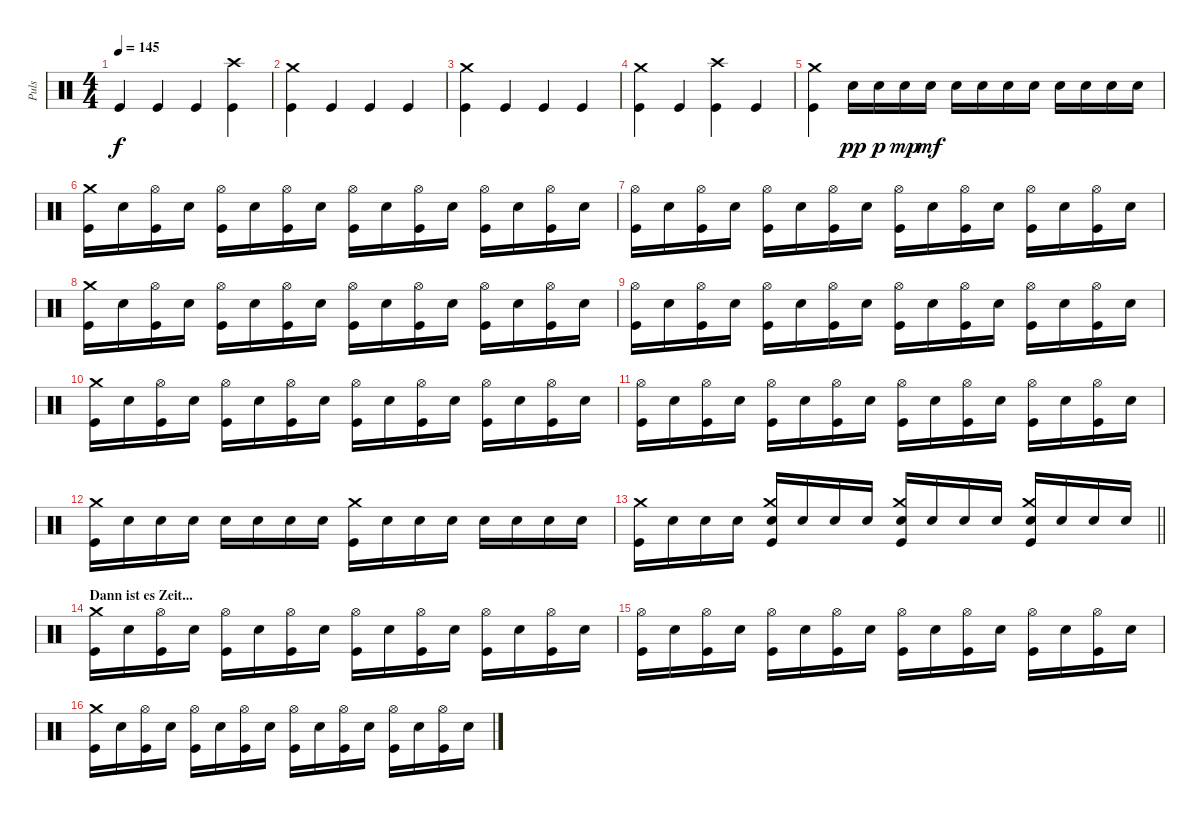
\track ("Puls" "Puls") {instrument percussion}
\staff {score}
\articulation defaults
\ts (4 4)
\tempo 145
\clef neutral
\ks c "Kick (hit)".4{dy f} "Kick (hit)".4 "Kick (hit)".4
("Kick (hit)" "Crash high (hit)").4 |
("Crash medium (hit)" "Kick (hit)").4 "Kick (hit)".4 "Kick (hit)".4 "Kick (hit)".4 |
("Kick (hit)" "Crash medium (hit)").4 "Kick (hit)".4 "Kick (hit)".4 "Kick (hit)".4 |
("Kick (hit)" "Crash medium (hit)").4 "Kick (hit)".4 ("Kick (hit)" "Crash high (hit)").4 "Kick (hit)".4 |
("Crash medium (hit)" "Kick (hit)").4 "Snare (hit) 2".16{dy pp} "Snare (hit) 2".16{dy p} "Snare (hit) 2".16{dy mp} "Snare (hit) 2".16{dy mf} "Snare (hit) 2".16 "Snare (hit) 2".16 "Snare (hit) 2".16 "Snare (hit) 2".16 "Snare (hit) 2".16 "Snare (hit) 2".16 "Snare (hit) 2".16 "Snare (hit) 2".16 |
("Crash medium (hit)" "Kick (hit)").16 "Snare (hit) 2".16 ("Kick (hit)" "Hi-Hat (open)").16 "Snare (hit) 2".16 ("Kick (hit)" "Hi-Hat (open)").16 "Snare (hit) 2".16 ("Kick (hit)" "Hi-Hat (open)").16 "Snare (hit) 2".16 ("Kick (hit)" "Hi-Hat (open)").16 "Snare (hit) 2".16 ("Kick (hit)" "Hi-Hat (open)").16 "Snare (hit) 2".16 ("Kick (hit)" "Hi-Hat (open)").16 "Snare (hit) 2".16 ("Kick (hit)" "Hi-Hat (open)").16 "Snare (hit) 2".16 |
("Kick (hit)" "Hi-Hat (open)").16 "Snare (hit) 2".16 ("Kick (hit)" "Hi-Hat (open)").16 "Snare (hit) 2".16 ("Kick (hit)" "Hi-Hat (open)").16 "Snare (hit) 2".16 ("Kick (hit)" "Hi-Hat (open)").16 "Snare (hit) 2".16 ("Kick (hit)" "Hi-Hat (open)").16 "Snare (hit) 2".16 ("Kick (hit)" "Hi-Hat (open)").16 "Snare (hit) 2".16 ("Kick (hit)" "Hi-Hat (open)").16 "Snare (hit) 2".16 ("Kick (hit)" "Hi-Hat (open)").16 "Snare (hit) 2".16 |
("Crash medium (hit)" "Kick (hit)").16 "Snare (hit) 2".16 ("Kick (hit)" "Hi-Hat (open)").16 "Snare (hit) 2".16 ("Kick (hit)" "Hi-Hat (open)").16 "Snare (hit) 2".16 ("Kick (hit)" "Hi-Hat (open)").16 "Snare (hit) 2".16 ("Kick (hit)" "Hi-Hat (open)").16 "Snare (hit) 2".16 ("Kick (hit)" "Hi-Hat (open)").16 "Snare (hit) 2".16 ("Kick (hit)" "Hi-Hat (open)").16 "Snare (hit) 2".16 ("Kick (hit)" "Hi-Hat (open)").16 "Snare (hit) 2".16 |
("Kick (hit)" "Hi-Hat (open)").16 "Snare (hit) 2".16 ("Kick (hit)" "Hi-Hat (open)").16 "Snare (hit) 2".16 ("Kick (hit)" "Hi-Hat (open)").16 "Snare (hit) 2".16 ("Kick (hit)" "Hi-Hat (open)").16 "Snare (hit) 2".16 ("Kick (hit)" "Hi-Hat (open)").16 "Snare (hit) 2".16 ("Kick (hit)" "Hi-Hat (open)").16 "Snare (hit) 2".16 ("Kick (hit)" "Hi-Hat (open)").16 "Snare (hit) 2".16 ("Kick (hit)" "Hi-Hat (open)").16 "Snare (hit) 2".16 |
("Kick (hit)" "Crash medium (hit)").16 "Snare (hit) 2".16 ("Kick (hit)" "Hi-Hat (open)").16 "Snare (hit) 2".16 ("Kick (hit)" "Hi-Hat (open)").16 "Snare (hit) 2".16 ("Kick (hit)" "Hi-Hat (open)").16 "Snare (hit) 2".16 ("Kick (hit)" "Hi-Hat (open)").16 "Snare (hit) 2".16 ("Kick (hit)" "Hi-Hat (open)").16 "Snare (hit) 2".16 ("Kick (hit)" "Hi-Hat (open)").16 "Snare (hit) 2".16 ("Kick (hit)" "Hi-Hat (open)").16 "Snare (hit) 2".16 |
("Kick (hit)" "Hi-Hat (open)").16 "Snare (hit) 2".16 ("Kick (hit)" "Hi-Hat (open)").16 "Snare (hit) 2".16 ("Kick (hit)" "Hi-Hat (open)").16 "Snare (hit) 2".16 ("Kick (hit)" "Hi-Hat (open)").16 "Snare (hit) 2".16 ("Kick (hit)" "Hi-Hat (open)").16 "Snare (hit) 2".16 ("Kick (hit)" "Hi-Hat (open)").16 "Snare (hit) 2".16 ("Kick (hit)" "Hi-Hat (open)").16 "Snare (hit) 2".16 ("Kick (hit)" "Hi-Hat (open)").16 "Snare (hit) 2".16 |
("Crash medium (hit)" "Kick (hit)").16 "Snare (hit) 2".16 "Snare (hit) 2".16 "Snare (hit) 2".16 "Snare (hit) 2".16 "Snare (hit) 2".16 "Snare (hit) 2".16 "Snare (hit) 2".16 ("Kick (hit)" "Crash medium (hit)").16 "Snare (hit) 2".16 "Snare (hit) 2".16 "Snare (hit) 2".16 "Snare (hit) 2".16 "Snare (hit) 2".16 "Snare (hit) 2".16 "Snare (hit) 2".16 |
\barLineRight lightlight
("Crash medium (hit)" "Kick (hit)").16 "Snare (hit) 2".16 "Snare (hit) 2".16 "Snare (hit) 2".16 ("Snare (hit) 2" "Crash medium (hit)" "Kick (hit)").16 "Snare (hit) 2".16 "Snare (hit) 2".16 "Snare (hit) 2".16 ("Snare (hit) 2" "Kick (hit)" "Crash medium (hit)").16 "Snare (hit) 2".16 "Snare (hit) 2".16 "Snare (hit) 2".16 ("Snare (hit) 2" "Crash medium (hit)" "Kick (hit)").16 "Snare (hit) 2".16 "Snare (hit) 2".16 "Snare (hit) 2".16 |
\section ("" "Dann ist es Zeit...")
("Crash medium (hit)" "Kick (hit)").16 "Snare (hit) 2".16 ("Kick (hit)" "Hi-Hat (open)").16 "Snare (hit) 2".16 ("Kick (hit)" "Hi-Hat (open)").16 "Snare (hit) 2".16 ("Kick (hit)" "Hi-Hat (open)").16 "Snare (hit) 2".16 ("Kick (hit)" "Hi-Hat (open)").16 "Snare (hit) 2".16 ("Kick (hit)" "Hi-Hat (open)").16 "Snare (hit) 2".16 ("Kick (hit)" "Hi-Hat (open)").16 "Snare (hit) 2".16 ("Kick (hit)" "Hi-Hat (open)").16 "Snare (hit) 2".16 |
("Kick (hit)" "Hi-Hat (open)").16 "Snare (hit) 2".16 ("Kick (hit)" "Hi-Hat (open)").16 "Snare (hit) 2".16 ("Kick (hit)" "Hi-Hat (open)").16 "Snare (hit) 2".16 ("Kick (hit)" "Hi-Hat (open)").16 "Snare (hit) 2".16 ("Kick (hit)" "Hi-Hat (open)").16 "Snare (hit) 2".16 ("Kick (hit)" "Hi-Hat (open)").16 "Snare (hit) 2".16 ("Kick (hit)" "Hi-Hat (open)").16 "Snare (hit) 2".16 ("Kick (hit)" "Hi-Hat (open)").16 "Snare (hit) 2".16 |
("Crash medium (hit)" "Kick (hit)").16 "Snare (hit) 2".16 ("Kick (hit)" "Hi-Hat (open)").16 "Snare (hit) 2".16 ("Kick (hit)" "Hi-Hat (open)").16 "Snare (hit) 2".16 ("Kick (hit)" "Hi-Hat (open)").16 "Snare (hit) 2".16 ("Kick (hit)" "Hi-Hat (open)").16 "Snare (hit) 2".16 ("Kick (hit)" "Hi-Hat (open)").16 "Snare (hit) 2".16 ("Kick (hit)" "Hi-Hat (open)").16 "Snare (hit) 2".16 ("Kick (hit)" "Hi-Hat (open)").16 "Snare (hit) 2".16
